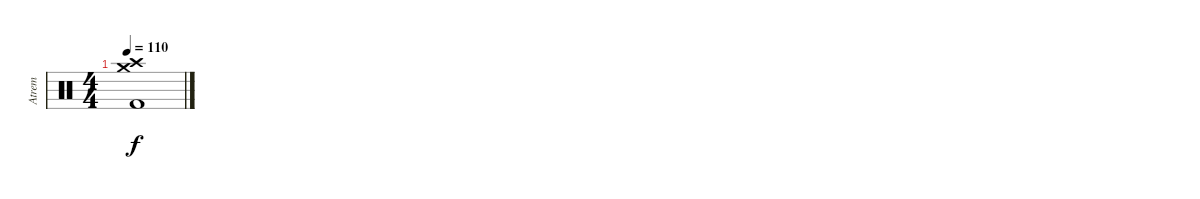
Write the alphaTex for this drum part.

\track ("Atrem" "Atrem") {instrument percussion}
\staff {score}
\articulation defaults
\ts (4 4)
\tempo 110
\clef neutral
\ks c
("Kick (hit) 2" "Crash high (hit)" "Crash medium (hit)").1{dy f}
